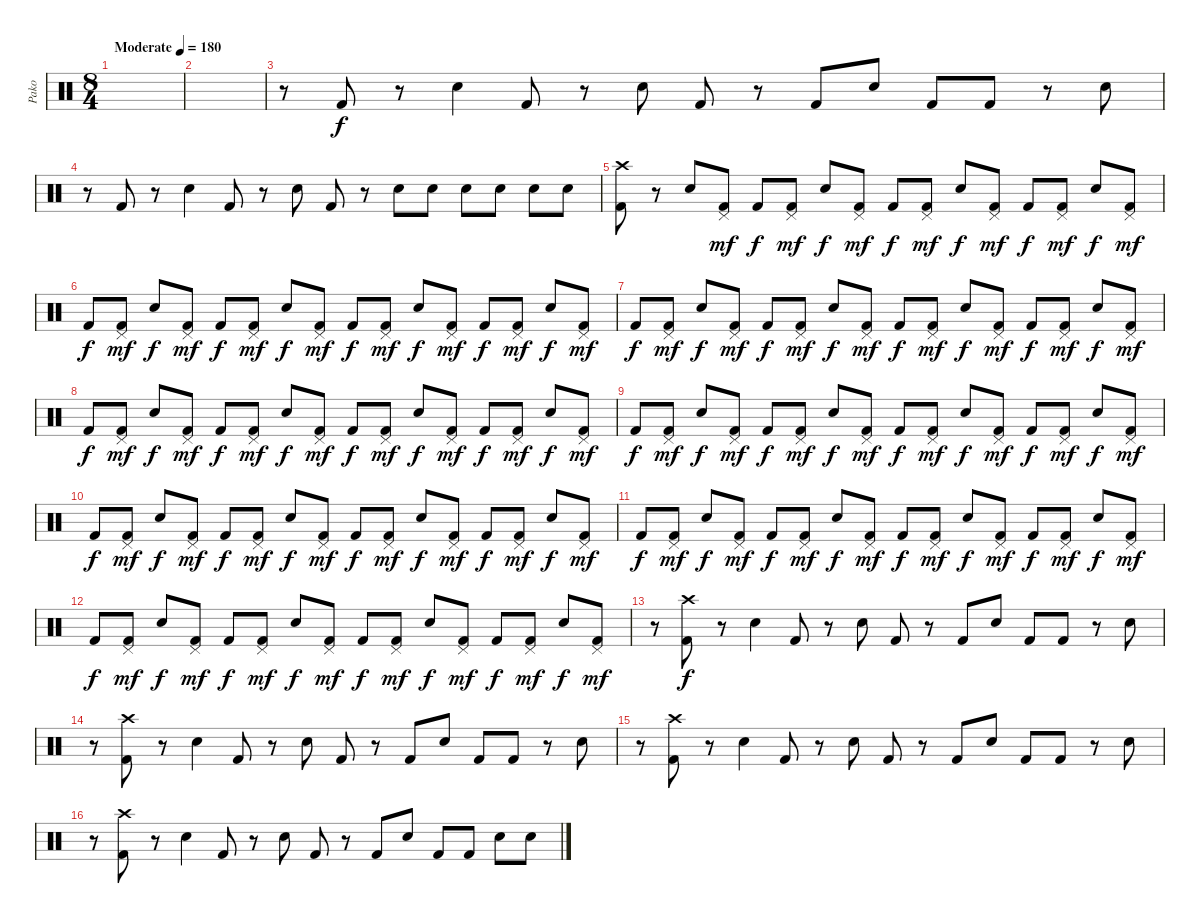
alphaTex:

\track ("Pako" "Pako") {instrument percussion}
\staff {score}
\articulation defaults
\ts (8 4)
\tempo (180 "Moderate")
\clef neutral
\ks c
|
|
r.8 "Kick (hit) 2".8 r.8 "Electric Snare (hit)".4 "Kick (hit) 2".8 r.8 "Electric Snare (hit)".8 "Kick (hit) 2".8 r.8 "Kick (hit) 2".8 "Electric Snare (hit)".8 "Kick (hit) 2".8 "Kick (hit) 2".8 r.8 "Electric Snare (hit)".8 |
r.8 "Kick (hit) 2".8 r.8 "Electric Snare (hit)".4 "Kick (hit) 2".8 r.8 "Electric Snare (hit)".8 "Kick (hit) 2".8 r.8 "Electric Snare (hit)".8 "Electric Snare (hit)".8 "Electric Snare (hit)".8 "Electric Snare (hit)".8 "Electric Snare (hit)".8 "Electric Snare (hit)".8 |
("Crash high (hit)" "Kick (hit) 2").8 r.8 "Electric Snare (hit)".8 ("Pedal Hi-Hat (hit)" "Kick (hit) 2").8{dy mf} "Kick (hit) 2".8{dy f} ("Pedal Hi-Hat (hit)" "Kick (hit) 2").8{dy mf} "Electric Snare (hit)".8{dy f} ("Pedal Hi-Hat (hit)" "Kick (hit) 2").8{dy mf} "Kick (hit) 2".8{dy f} ("Pedal Hi-Hat (hit)" "Kick (hit) 2").8{dy mf} "Electric Snare (hit)".8{dy f} ("Pedal Hi-Hat (hit)" "Kick (hit) 2").8{dy mf} "Kick (hit) 2".8{dy f} ("Pedal Hi-Hat (hit)" "Kick (hit) 2").8{dy mf} "Electric Snare (hit)".8{dy f} ("Pedal Hi-Hat (hit)" "Kick (hit) 2").8{dy mf} |
"Kick (hit) 2".8{dy f} ("Pedal Hi-Hat (hit)" "Kick (hit) 2").8{dy mf} "Electric Snare (hit)".8{dy f} ("Pedal Hi-Hat (hit)" "Kick (hit) 2").8{dy mf} "Kick (hit) 2".8{dy f} ("Pedal Hi-Hat (hit)" "Kick (hit) 2").8{dy mf} "Electric Snare (hit)".8{dy f} ("Pedal Hi-Hat (hit)" "Kick (hit) 2").8{dy mf} "Kick (hit) 2".8{dy f} ("Pedal Hi-Hat (hit)" "Kick (hit) 2").8{dy mf} "Electric Snare (hit)".8{dy f} ("Pedal Hi-Hat (hit)" "Kick (hit) 2").8{dy mf} "Kick (hit) 2".8{dy f} ("Pedal Hi-Hat (hit)" "Kick (hit) 2").8{dy mf} "Electric Snare (hit)".8{dy f} ("Pedal Hi-Hat (hit)" "Kick (hit) 2").8{dy mf} |
"Kick (hit) 2".8{dy f} ("Pedal Hi-Hat (hit)" "Kick (hit) 2").8{dy mf} "Electric Snare (hit)".8{dy f} ("Pedal Hi-Hat (hit)" "Kick (hit) 2").8{dy mf} "Kick (hit) 2".8{dy f} ("Pedal Hi-Hat (hit)" "Kick (hit) 2").8{dy mf} "Electric Snare (hit)".8{dy f} ("Pedal Hi-Hat (hit)" "Kick (hit) 2").8{dy mf} "Kick (hit) 2".8{dy f} ("Pedal Hi-Hat (hit)" "Kick (hit) 2").8{dy mf} "Electric Snare (hit)".8{dy f} ("Pedal Hi-Hat (hit)" "Kick (hit) 2").8{dy mf} "Kick (hit) 2".8{dy f} ("Pedal Hi-Hat (hit)" "Kick (hit) 2").8{dy mf} "Electric Snare (hit)".8{dy f} ("Pedal Hi-Hat (hit)" "Kick (hit) 2").8{dy mf} |
"Kick (hit) 2".8{dy f} ("Pedal Hi-Hat (hit)" "Kick (hit) 2").8{dy mf} "Electric Snare (hit)".8{dy f} ("Pedal Hi-Hat (hit)" "Kick (hit) 2").8{dy mf} "Kick (hit) 2".8{dy f} ("Pedal Hi-Hat (hit)" "Kick (hit) 2").8{dy mf} "Electric Snare (hit)".8{dy f} ("Pedal Hi-Hat (hit)" "Kick (hit) 2").8{dy mf} "Kick (hit) 2".8{dy f} ("Pedal Hi-Hat (hit)" "Kick (hit) 2").8{dy mf} "Electric Snare (hit)".8{dy f} ("Pedal Hi-Hat (hit)" "Kick (hit) 2").8{dy mf} "Kick (hit) 2".8{dy f} ("Pedal Hi-Hat (hit)" "Kick (hit) 2").8{dy mf} "Electric Snare (hit)".8{dy f} ("Pedal Hi-Hat (hit)" "Kick (hit) 2").8{dy mf} |
"Kick (hit) 2".8{dy f} ("Pedal Hi-Hat (hit)" "Kick (hit) 2").8{dy mf} "Electric Snare (hit)".8{dy f} ("Pedal Hi-Hat (hit)" "Kick (hit) 2").8{dy mf} "Kick (hit) 2".8{dy f} ("Pedal Hi-Hat (hit)" "Kick (hit) 2").8{dy mf} "Electric Snare (hit)".8{dy f} ("Pedal Hi-Hat (hit)" "Kick (hit) 2").8{dy mf} "Kick (hit) 2".8{dy f} ("Pedal Hi-Hat (hit)" "Kick (hit) 2").8{dy mf} "Electric Snare (hit)".8{dy f} ("Pedal Hi-Hat (hit)" "Kick (hit) 2").8{dy mf} "Kick (hit) 2".8{dy f} ("Pedal Hi-Hat (hit)" "Kick (hit) 2").8{dy mf} "Electric Snare (hit)".8{dy f} ("Pedal Hi-Hat (hit)" "Kick (hit) 2").8{dy mf} |
"Kick (hit) 2".8{dy f} ("Pedal Hi-Hat (hit)" "Kick (hit) 2").8{dy mf} "Electric Snare (hit)".8{dy f} ("Pedal Hi-Hat (hit)" "Kick (hit) 2").8{dy mf} "Kick (hit) 2".8{dy f} ("Pedal Hi-Hat (hit)" "Kick (hit) 2").8{dy mf} "Electric Snare (hit)".8{dy f} ("Pedal Hi-Hat (hit)" "Kick (hit) 2").8{dy mf} "Kick (hit) 2".8{dy f} ("Pedal Hi-Hat (hit)" "Kick (hit) 2").8{dy mf} "Electric Snare (hit)".8{dy f} ("Pedal Hi-Hat (hit)" "Kick (hit) 2").8{dy mf} "Kick (hit) 2".8{dy f} ("Pedal Hi-Hat (hit)" "Kick (hit) 2").8{dy mf} "Electric Snare (hit)".8{dy f} ("Pedal Hi-Hat (hit)" "Kick (hit) 2").8{dy mf} |
"Kick (hit) 2".8{dy f} ("Pedal Hi-Hat (hit)" "Kick (hit) 2").8{dy mf} "Electric Snare (hit)".8{dy f} ("Pedal Hi-Hat (hit)" "Kick (hit) 2").8{dy mf} "Kick (hit) 2".8{dy f} ("Pedal Hi-Hat (hit)" "Kick (hit) 2").8{dy mf} "Electric Snare (hit)".8{dy f} ("Pedal Hi-Hat (hit)" "Kick (hit) 2").8{dy mf} "Kick (hit) 2".8{dy f} ("Pedal Hi-Hat (hit)" "Kick (hit) 2").8{dy mf} "Electric Snare (hit)".8{dy f} ("Pedal Hi-Hat (hit)" "Kick (hit) 2").8{dy mf} "Kick (hit) 2".8{dy f} ("Pedal Hi-Hat (hit)" "Kick (hit) 2").8{dy mf} "Electric Snare (hit)".8{dy f} ("Pedal Hi-Hat (hit)" "Kick (hit) 2").8{dy mf} |
"Kick (hit) 2".8{dy f} ("Pedal Hi-Hat (hit)" "Kick (hit) 2").8{dy mf} "Electric Snare (hit)".8{dy f} ("Pedal Hi-Hat (hit)" "Kick (hit) 2").8{dy mf} "Kick (hit) 2".8{dy f} ("Pedal Hi-Hat (hit)" "Kick (hit) 2").8{dy mf} "Electric Snare (hit)".8{dy f} ("Pedal Hi-Hat (hit)" "Kick (hit) 2").8{dy mf} "Kick (hit) 2".8{dy f} ("Pedal Hi-Hat (hit)" "Kick (hit) 2").8{dy mf} "Electric Snare (hit)".8{dy f} ("Pedal Hi-Hat (hit)" "Kick (hit) 2").8{dy mf} "Kick (hit) 2".8{dy f} ("Pedal Hi-Hat (hit)" "Kick (hit) 2").8{dy mf} "Electric Snare (hit)".8{dy f} ("Pedal Hi-Hat (hit)" "Kick (hit) 2").8{dy mf} |
r.8 ("Kick (hit) 2" "Crash high (hit)").8{dy f} r.8 "Electric Snare (hit)".4 "Kick (hit) 2".8 r.8 "Electric Snare (hit)".8 "Kick (hit) 2".8 r.8 "Kick (hit) 2".8 "Electric Snare (hit)".8 "Kick (hit) 2".8 "Kick (hit) 2".8 r.8 "Electric Snare (hit)".8 |
r.8 ("Kick (hit) 2" "Crash high (hit)").8 r.8 "Electric Snare (hit)".4 "Kick (hit) 2".8 r.8 "Electric Snare (hit)".8 "Kick (hit) 2".8 r.8 "Kick (hit) 2".8 "Electric Snare (hit)".8 "Kick (hit) 2".8 "Kick (hit) 2".8 r.8 "Electric Snare (hit)".8 |
r.8 ("Kick (hit) 2" "Crash high (hit)").8 r.8 "Electric Snare (hit)".4 "Kick (hit) 2".8 r.8 "Electric Snare (hit)".8 "Kick (hit) 2".8 r.8 "Kick (hit) 2".8 "Electric Snare (hit)".8 "Kick (hit) 2".8 "Kick (hit) 2".8 r.8 "Electric Snare (hit)".8 |
r.8 ("Kick (hit) 2" "Crash high (hit)").8 r.8 "Electric Snare (hit)".4 "Kick (hit) 2".8 r.8 "Electric Snare (hit)".8 "Kick (hit) 2".8 r.8 "Kick (hit) 2".8 "Electric Snare (hit)".8 "Kick (hit) 2".8 "Kick (hit) 2".8 "Electric Snare (hit)".8 "Electric Snare (hit)".8
